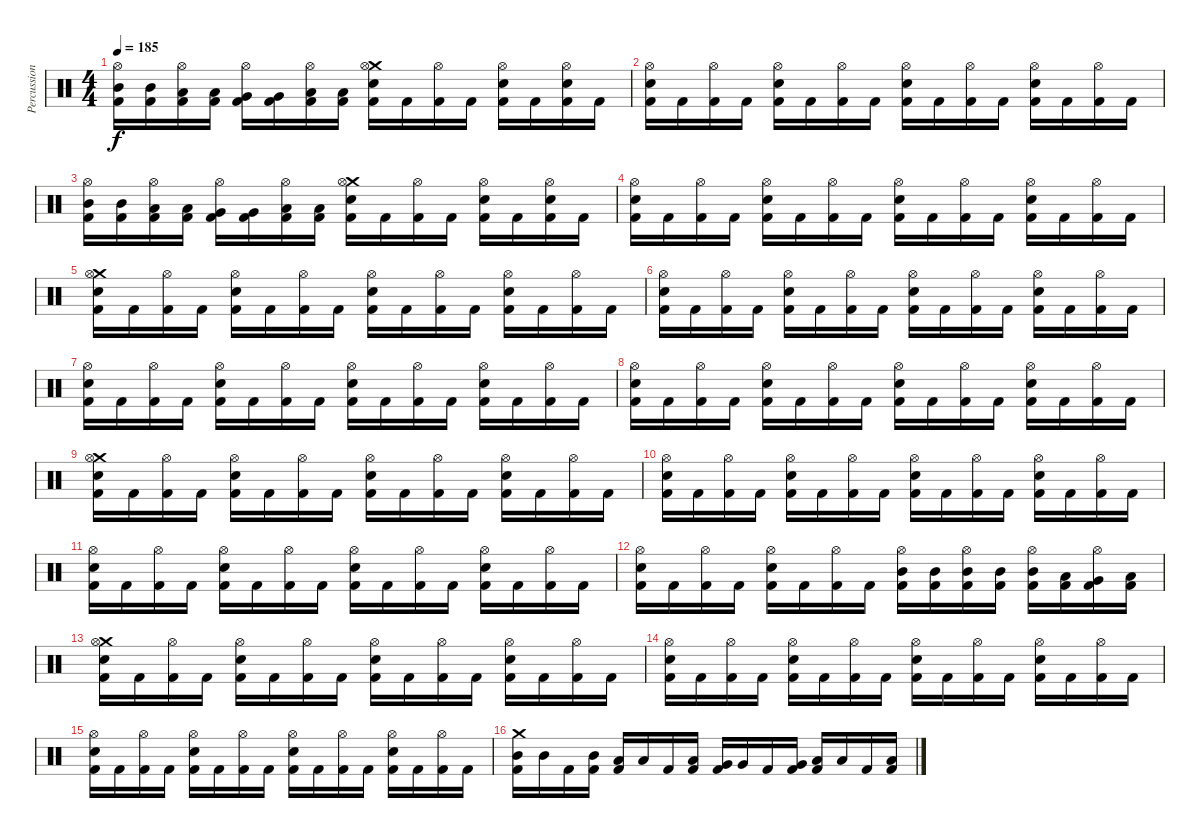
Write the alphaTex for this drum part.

\track ("Percussion" "Percussion") {instrument percussion}
\staff {score}
\articulation defaults
\ts (4 4)
\tempo 185
\clef neutral
\ks c
("Hi-Hat (open)" "Mid Tom (hit)" "Kick (hit) 2").16{dy f} ("Mid Tom (hit)" "Kick (hit) 2").16 ("Hi-Hat (open)" "Low Tom (hit)" "Kick (hit) 2").16 ("Low Tom (hit)" "Kick (hit) 2").16 ("Hi-Hat (open)" "Very Low Tom (hit)" "Kick (hit) 2").16 ("Very Low Tom (hit)" "Kick (hit) 2").16 ("Hi-Hat (open)" "Low Floor Tom (hit)" "Kick (hit) 2").16 ("Low Floor Tom (hit)" "Kick (hit) 2").16 ("Crash medium (hit)" "Hi-Hat (open)" "Electric Snare (hit)" "Kick (hit) 2").16 "Kick (hit) 2".16 ("Hi-Hat (open)" "Kick (hit) 2").16 "Kick (hit) 2".16 ("Hi-Hat (open)" "Electric Snare (hit)" "Kick (hit) 2").16 "Kick (hit) 2".16 ("Hi-Hat (open)" "Electric Snare (hit)" "Kick (hit) 2").16 "Kick (hit) 2".16 |
("Hi-Hat (open)" "Electric Snare (hit)" "Kick (hit) 2").16 "Kick (hit) 2".16 ("Hi-Hat (open)" "Kick (hit) 2").16 "Kick (hit) 2".16 ("Hi-Hat (open)" "Electric Snare (hit)" "Kick (hit) 2").16 "Kick (hit) 2".16 ("Hi-Hat (open)" "Kick (hit) 2").16 "Kick (hit) 2".16 ("Hi-Hat (open)" "Electric Snare (hit)" "Kick (hit) 2").16 "Kick (hit) 2".16 ("Hi-Hat (open)" "Kick (hit) 2").16 "Kick (hit) 2".16 ("Hi-Hat (open)" "Electric Snare (hit)" "Kick (hit) 2").16 "Kick (hit) 2".16 ("Hi-Hat (open)" "Kick (hit) 2").16 "Kick (hit) 2".16 |
("Hi-Hat (open)" "Mid Tom (hit)" "Kick (hit) 2").16 ("Mid Tom (hit)" "Kick (hit) 2").16 ("Hi-Hat (open)" "Low Tom (hit)" "Kick (hit) 2").16 ("Low Tom (hit)" "Kick (hit) 2").16 ("Hi-Hat (open)" "Very Low Tom (hit)" "Kick (hit) 2").16 ("Very Low Tom (hit)" "Kick (hit) 2").16 ("Hi-Hat (open)" "Low Floor Tom (hit)" "Kick (hit) 2").16 ("Low Floor Tom (hit)" "Kick (hit) 2").16 ("Crash medium (hit)" "Hi-Hat (open)" "Electric Snare (hit)" "Kick (hit) 2").16 "Kick (hit) 2".16 ("Hi-Hat (open)" "Kick (hit) 2").16 "Kick (hit) 2".16 ("Hi-Hat (open)" "Electric Snare (hit)" "Kick (hit) 2").16 "Kick (hit) 2".16 ("Hi-Hat (open)" "Electric Snare (hit)" "Kick (hit) 2").16 "Kick (hit) 2".16 |
("Hi-Hat (open)" "Electric Snare (hit)" "Kick (hit) 2").16 "Kick (hit) 2".16 ("Hi-Hat (open)" "Kick (hit) 2").16 "Kick (hit) 2".16 ("Hi-Hat (open)" "Electric Snare (hit)" "Kick (hit) 2").16 "Kick (hit) 2".16 ("Hi-Hat (open)" "Kick (hit) 2").16 "Kick (hit) 2".16 ("Hi-Hat (open)" "Electric Snare (hit)" "Kick (hit) 2").16 "Kick (hit) 2".16 ("Hi-Hat (open)" "Kick (hit) 2").16 "Kick (hit) 2".16 ("Hi-Hat (open)" "Electric Snare (hit)" "Kick (hit) 2").16 "Kick (hit) 2".16 ("Hi-Hat (open)" "Kick (hit) 2").16 "Kick (hit) 2".16 |
("Crash medium (hit)" "Hi-Hat (open)" "Electric Snare (hit)" "Kick (hit) 2").16 "Kick (hit) 2".16 ("Hi-Hat (open)" "Kick (hit) 2").16 "Kick (hit) 2".16 ("Hi-Hat (open)" "Electric Snare (hit)" "Kick (hit) 2").16 "Kick (hit) 2".16 ("Hi-Hat (open)" "Kick (hit) 2").16 "Kick (hit) 2".16 ("Hi-Hat (open)" "Electric Snare (hit)" "Kick (hit) 2").16 "Kick (hit) 2".16 ("Hi-Hat (open)" "Kick (hit) 2").16 "Kick (hit) 2".16 ("Hi-Hat (open)" "Electric Snare (hit)" "Kick (hit) 2").16 "Kick (hit) 2".16 ("Hi-Hat (open)" "Kick (hit) 2").16 "Kick (hit) 2".16 |
("Hi-Hat (open)" "Electric Snare (hit)" "Kick (hit) 2").16 "Kick (hit) 2".16 ("Hi-Hat (open)" "Kick (hit) 2").16 "Kick (hit) 2".16 ("Hi-Hat (open)" "Electric Snare (hit)" "Kick (hit) 2").16 "Kick (hit) 2".16 ("Hi-Hat (open)" "Kick (hit) 2").16 "Kick (hit) 2".16 ("Hi-Hat (open)" "Electric Snare (hit)" "Kick (hit) 2").16 "Kick (hit) 2".16 ("Hi-Hat (open)" "Kick (hit) 2").16 "Kick (hit) 2".16 ("Hi-Hat (open)" "Electric Snare (hit)" "Kick (hit) 2").16 "Kick (hit) 2".16 ("Hi-Hat (open)" "Kick (hit) 2").16 "Kick (hit) 2".16 |
("Hi-Hat (open)" "Electric Snare (hit)" "Kick (hit) 2").16 "Kick (hit) 2".16 ("Hi-Hat (open)" "Kick (hit) 2").16 "Kick (hit) 2".16 ("Hi-Hat (open)" "Electric Snare (hit)" "Kick (hit) 2").16 "Kick (hit) 2".16 ("Hi-Hat (open)" "Kick (hit) 2").16 "Kick (hit) 2".16 ("Hi-Hat (open)" "Electric Snare (hit)" "Kick (hit) 2").16 "Kick (hit) 2".16 ("Hi-Hat (open)" "Kick (hit) 2").16 "Kick (hit) 2".16 ("Hi-Hat (open)" "Electric Snare (hit)" "Kick (hit) 2").16 "Kick (hit) 2".16 ("Hi-Hat (open)" "Kick (hit) 2").16 "Kick (hit) 2".16 |
("Hi-Hat (open)" "Electric Snare (hit)" "Kick (hit) 2").16 "Kick (hit) 2".16 ("Hi-Hat (open)" "Kick (hit) 2").16 "Kick (hit) 2".16 ("Hi-Hat (open)" "Electric Snare (hit)" "Kick (hit) 2").16 "Kick (hit) 2".16 ("Hi-Hat (open)" "Kick (hit) 2").16 "Kick (hit) 2".16 ("Hi-Hat (open)" "Electric Snare (hit)" "Kick (hit) 2").16 "Kick (hit) 2".16 ("Hi-Hat (open)" "Kick (hit) 2").16 "Kick (hit) 2".16 ("Hi-Hat (open)" "Electric Snare (hit)" "Kick (hit) 2").16 "Kick (hit) 2".16 ("Hi-Hat (open)" "Kick (hit) 2").16 "Kick (hit) 2".16 |
("Crash medium (hit)" "Hi-Hat (open)" "Electric Snare (hit)" "Kick (hit) 2").16 "Kick (hit) 2".16 ("Hi-Hat (open)" "Kick (hit) 2").16 "Kick (hit) 2".16 ("Hi-Hat (open)" "Electric Snare (hit)" "Kick (hit) 2").16 "Kick (hit) 2".16 ("Hi-Hat (open)" "Kick (hit) 2").16 "Kick (hit) 2".16 ("Hi-Hat (open)" "Electric Snare (hit)" "Kick (hit) 2").16 "Kick (hit) 2".16 ("Hi-Hat (open)" "Kick (hit) 2").16 "Kick (hit) 2".16 ("Hi-Hat (open)" "Electric Snare (hit)" "Kick (hit) 2").16 "Kick (hit) 2".16 ("Hi-Hat (open)" "Kick (hit) 2").16 "Kick (hit) 2".16 |
("Hi-Hat (open)" "Electric Snare (hit)" "Kick (hit) 2").16 "Kick (hit) 2".16 ("Hi-Hat (open)" "Kick (hit) 2").16 "Kick (hit) 2".16 ("Hi-Hat (open)" "Electric Snare (hit)" "Kick (hit) 2").16 "Kick (hit) 2".16 ("Hi-Hat (open)" "Kick (hit) 2").16 "Kick (hit) 2".16 ("Hi-Hat (open)" "Electric Snare (hit)" "Kick (hit) 2").16 "Kick (hit) 2".16 ("Hi-Hat (open)" "Kick (hit) 2").16 "Kick (hit) 2".16 ("Hi-Hat (open)" "Electric Snare (hit)" "Kick (hit) 2").16 "Kick (hit) 2".16 ("Hi-Hat (open)" "Kick (hit) 2").16 "Kick (hit) 2".16 |
("Hi-Hat (open)" "Electric Snare (hit)" "Kick (hit) 2").16 "Kick (hit) 2".16 ("Hi-Hat (open)" "Kick (hit) 2").16 "Kick (hit) 2".16 ("Hi-Hat (open)" "Electric Snare (hit)" "Kick (hit) 2").16 "Kick (hit) 2".16 ("Hi-Hat (open)" "Kick (hit) 2").16 "Kick (hit) 2".16 ("Hi-Hat (open)" "Electric Snare (hit)" "Kick (hit) 2").16 "Kick (hit) 2".16 ("Hi-Hat (open)" "Kick (hit) 2").16 "Kick (hit) 2".16 ("Hi-Hat (open)" "Electric Snare (hit)" "Kick (hit) 2").16 "Kick (hit) 2".16 ("Hi-Hat (open)" "Kick (hit) 2").16 "Kick (hit) 2".16 |
("Hi-Hat (open)" "Electric Snare (hit)" "Kick (hit) 2").16 "Kick (hit) 2".16 ("Hi-Hat (open)" "Kick (hit) 2").16 "Kick (hit) 2".16 ("Hi-Hat (open)" "Electric Snare (hit)" "Kick (hit) 2").16 "Kick (hit) 2".16 ("Hi-Hat (open)" "Kick (hit) 2").16 "Kick (hit) 2".16 ("Hi-Hat (open)" "Mid Tom (hit)" "Kick (hit) 2").16 ("Mid Tom (hit)" "Kick (hit) 2").16 ("Hi-Hat (open)" "Mid Tom (hit)" "Kick (hit) 2").16 ("Mid Tom (hit)" "Kick (hit) 2").16 ("Hi-Hat (open)" "Mid Tom (hit)" "Kick (hit) 2").16 ("Low Tom (hit)" "Kick (hit) 2").16 ("Hi-Hat (open)" "Very Low Tom (hit)" "Kick (hit) 2").16 ("Low Floor Tom (hit)" "Kick (hit) 2").16 |
("Crash medium (hit)" "Hi-Hat (open)" "Electric Snare (hit)" "Kick (hit) 2").16 "Kick (hit) 2".16 ("Hi-Hat (open)" "Kick (hit) 2").16 "Kick (hit) 2".16 ("Hi-Hat (open)" "Electric Snare (hit)" "Kick (hit) 2").16 "Kick (hit) 2".16 ("Hi-Hat (open)" "Kick (hit) 2").16 "Kick (hit) 2".16 ("Hi-Hat (open)" "Electric Snare (hit)" "Kick (hit) 2").16 "Kick (hit) 2".16 ("Hi-Hat (open)" "Kick (hit) 2").16 "Kick (hit) 2".16 ("Hi-Hat (open)" "Electric Snare (hit)" "Kick (hit) 2").16 "Kick (hit) 2".16 ("Hi-Hat (open)" "Kick (hit) 2").16 "Kick (hit) 2".16 |
("Hi-Hat (open)" "Electric Snare (hit)" "Kick (hit) 2").16 "Kick (hit) 2".16 ("Hi-Hat (open)" "Kick (hit) 2").16 "Kick (hit) 2".16 ("Hi-Hat (open)" "Electric Snare (hit)" "Kick (hit) 2").16 "Kick (hit) 2".16 ("Hi-Hat (open)" "Kick (hit) 2").16 "Kick (hit) 2".16 ("Hi-Hat (open)" "Electric Snare (hit)" "Kick (hit) 2").16 "Kick (hit) 2".16 ("Hi-Hat (open)" "Kick (hit) 2").16 "Kick (hit) 2".16 ("Hi-Hat (open)" "Electric Snare (hit)" "Kick (hit) 2").16 "Kick (hit) 2".16 ("Hi-Hat (open)" "Kick (hit) 2").16 "Kick (hit) 2".16 |
("Hi-Hat (open)" "Electric Snare (hit)" "Kick (hit) 2").16 "Kick (hit) 2".16 ("Hi-Hat (open)" "Kick (hit) 2").16 "Kick (hit) 2".16 ("Hi-Hat (open)" "Electric Snare (hit)" "Kick (hit) 2").16 "Kick (hit) 2".16 ("Hi-Hat (open)" "Kick (hit) 2").16 "Kick (hit) 2".16 ("Hi-Hat (open)" "Electric Snare (hit)" "Kick (hit) 2").16 "Kick (hit) 2".16 ("Hi-Hat (open)" "Kick (hit) 2").16 "Kick (hit) 2".16 ("Hi-Hat (open)" "Electric Snare (hit)" "Kick (hit) 2").16 "Kick (hit) 2".16 ("Hi-Hat (open)" "Kick (hit) 2").16 "Kick (hit) 2".16 |
("Crash medium (hit)" "Mid Tom (hit)" "Kick (hit) 2").16 "Mid Tom (hit)".16 "Kick (hit) 2".16 ("Mid Tom (hit)" "Kick (hit) 2").16 ("Low Tom (hit)" "Kick (hit) 2").16 "Low Tom (hit)".16 "Kick (hit) 2".16 ("Low Tom (hit)" "Kick (hit) 2").16 ("Very Low Tom (hit)" "Kick (hit) 2").16 "Very Low Tom (hit)".16 "Kick (hit) 2".16 ("Very Low Tom (hit)" "Kick (hit) 2").16 ("Low Floor Tom (hit)" "Kick (hit) 2").16 "Low Floor Tom (hit)".16 "Kick (hit) 2".16 ("Low Floor Tom (hit)" "Kick (hit) 2").16
